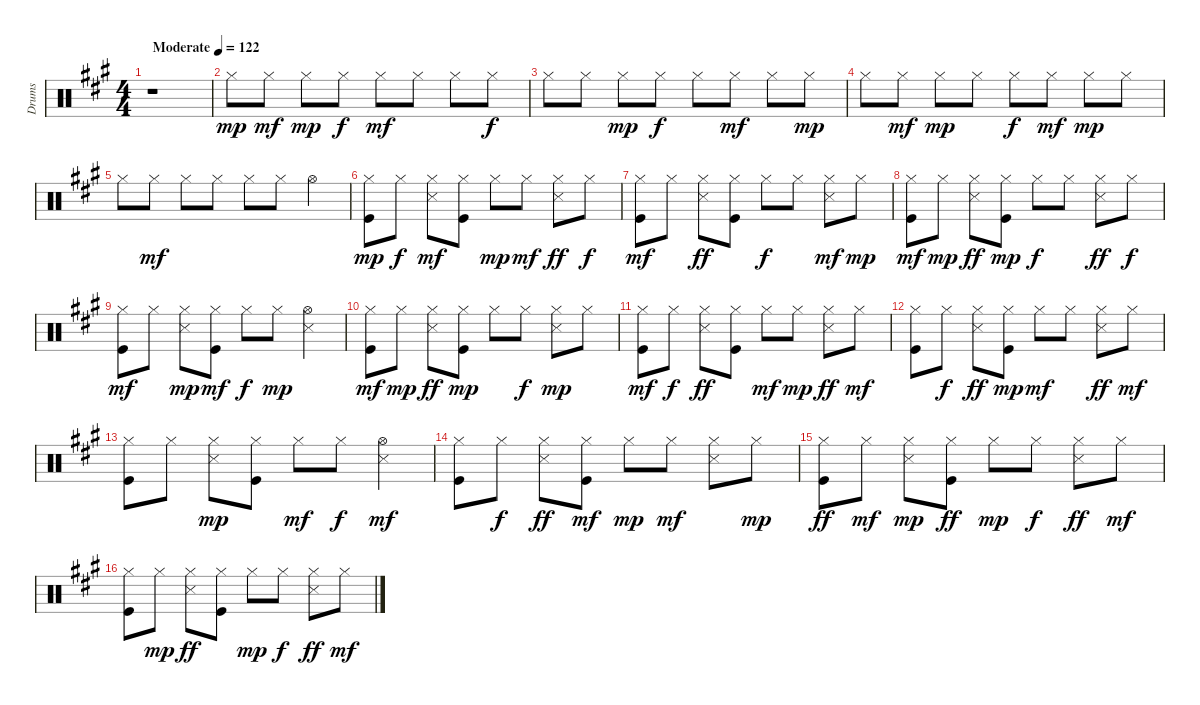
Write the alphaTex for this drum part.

\track ("Drums" "Drums") {instrument percussion}
\staff {score}
\articulation defaults
\ts (4 4)
\tempo (122 "Moderate")
\clef neutral
\ks a
r.1{dy mp} |
"Hi-Hat (closed)".8 "Hi-Hat (closed)".8{dy mf} "Hi-Hat (closed)".8{dy mp} "Hi-Hat (closed)".8{dy f} "Hi-Hat (closed)".8{dy mf} "Hi-Hat (closed)".8 "Hi-Hat (closed)".8 "Hi-Hat (closed)".8{dy f} |
"Hi-Hat (closed)".8 "Hi-Hat (closed)".8 "Hi-Hat (closed)".8{dy mp} "Hi-Hat (closed)".8{dy f} "Hi-Hat (closed)".8 "Hi-Hat (closed)".8{dy mf} "Hi-Hat (closed)".8 "Hi-Hat (closed)".8{dy mp} |
"Hi-Hat (closed)".8 "Hi-Hat (closed)".8{dy mf} "Hi-Hat (closed)".8{dy mp} "Hi-Hat (closed)".8 "Hi-Hat (closed)".8{dy f} "Hi-Hat (closed)".8{dy mf} "Hi-Hat (closed)".8{dy mp} "Hi-Hat (closed)".8 |
"Hi-Hat (closed)".8 "Hi-Hat (closed)".8{dy mf} "Hi-Hat (closed)".8 "Hi-Hat (closed)".8 "Hi-Hat (closed)".8 "Hi-Hat (closed)".8 "Hi-Hat (open)".4 |
("Kick (hit)" "Hi-Hat (closed)").8{dy mp} "Hi-Hat (closed)".8{dy f} ("Snare (side stick) 3" "Hi-Hat (closed)").8{dy mf} ("Kick (hit)" "Hi-Hat (closed)").8 "Hi-Hat (closed)".8{dy mp} "Hi-Hat (closed)".8{dy mf} ("Snare (side stick) 3" "Hi-Hat (closed)").8{dy ff} "Hi-Hat (closed)".8{dy f} |
("Kick (hit)" "Hi-Hat (closed)").8{dy mf} "Hi-Hat (closed)".8 ("Snare (side stick) 3" "Hi-Hat (closed)").8{dy ff} ("Kick (hit)" "Hi-Hat (closed)").8 "Hi-Hat (closed)".8{dy f} "Hi-Hat (closed)".8 ("Snare (side stick) 3" "Hi-Hat (closed)").8{dy mf} "Hi-Hat (closed)".8{dy mp} |
("Kick (hit)" "Hi-Hat (closed)").8{dy mf} "Hi-Hat (closed)".8{dy mp} ("Snare (side stick) 3" "Hi-Hat (closed)").8{dy ff} ("Kick (hit)" "Hi-Hat (closed)").8{dy mp} "Hi-Hat (closed)".8{dy f} "Hi-Hat (closed)".8 ("Snare (side stick) 3" "Hi-Hat (closed)").8{dy ff} "Hi-Hat (closed)".8{dy f} |
("Kick (hit)" "Hi-Hat (closed)").8{dy mf} "Hi-Hat (closed)".8 ("Snare (side stick) 3" "Hi-Hat (closed)").8{dy mp} ("Kick (hit)" "Hi-Hat (closed)").8{dy mf} "Hi-Hat (closed)".8{dy f} "Hi-Hat (closed)".8{dy mp} ("Snare (side stick) 3" "Hi-Hat (open)").4 |
("Kick (hit)" "Hi-Hat (closed)").8{dy mf} "Hi-Hat (closed)".8{dy mp} ("Snare (side stick) 3" "Hi-Hat (closed)").8{dy ff} ("Kick (hit)" "Hi-Hat (closed)").8{dy mp} "Hi-Hat (closed)".8 "Hi-Hat (closed)".8{dy f} ("Snare (side stick) 3" "Hi-Hat (closed)").8{dy mp} "Hi-Hat (closed)".8 |
("Kick (hit)" "Hi-Hat (closed)").8{dy mf} "Hi-Hat (closed)".8{dy f} ("Snare (side stick) 3" "Hi-Hat (closed)").8{dy ff} ("Kick (hit)" "Hi-Hat (closed)").8 "Hi-Hat (closed)".8{dy mf} "Hi-Hat (closed)".8{dy mp} ("Snare (side stick) 3" "Hi-Hat (closed)").8{dy ff} "Hi-Hat (closed)".8{dy mf} |
("Kick (hit)" "Hi-Hat (closed)").8 "Hi-Hat (closed)".8{dy f} ("Snare (side stick) 3" "Hi-Hat (closed)").8{dy ff} ("Kick (hit)" "Hi-Hat (closed)").8{dy mp} "Hi-Hat (closed)".8{dy mf} "Hi-Hat (closed)".8 ("Snare (side stick) 3" "Hi-Hat (closed)").8{dy ff} "Hi-Hat (closed)".8{dy mf} |
("Kick (hit)" "Hi-Hat (closed)").8 "Hi-Hat (closed)".8 ("Snare (side stick) 3" "Hi-Hat (closed)").8{dy mp} ("Kick (hit)" "Hi-Hat (closed)").8 "Hi-Hat (closed)".8{dy mf} "Hi-Hat (closed)".8{dy f} ("Snare (side stick) 3" "Hi-Hat (open)").4{dy mf} |
("Kick (hit)" "Hi-Hat (closed)").8 "Hi-Hat (closed)".8{dy f} ("Snare (side stick) 3" "Hi-Hat (closed)").8{dy ff} ("Kick (hit)" "Hi-Hat (closed)").8{dy mf} "Hi-Hat (closed)".8{dy mp} "Hi-Hat (closed)".8{dy mf} ("Snare (side stick) 3" "Hi-Hat (closed)").8 "Hi-Hat (closed)".8{dy mp} |
("Kick (hit)" "Hi-Hat (closed)").8{dy ff} "Hi-Hat (closed)".8{dy mf} ("Snare (side stick) 3" "Hi-Hat (closed)").8{dy mp} ("Kick (hit)" "Hi-Hat (closed)").8{dy ff} "Hi-Hat (closed)".8{dy mp} "Hi-Hat (closed)".8{dy f} ("Snare (side stick) 3" "Hi-Hat (closed)").8{dy ff} "Hi-Hat (closed)".8{dy mf} |
("Kick (hit)" "Hi-Hat (closed)").8 "Hi-Hat (closed)".8{dy mp} ("Snare (side stick) 3" "Hi-Hat (closed)").8{dy ff} ("Kick (hit)" "Hi-Hat (closed)").8 "Hi-Hat (closed)".8{dy mp} "Hi-Hat (closed)".8{dy f} ("Snare (side stick) 3" "Hi-Hat (closed)").8{dy ff} "Hi-Hat (closed)".8{dy mf}
